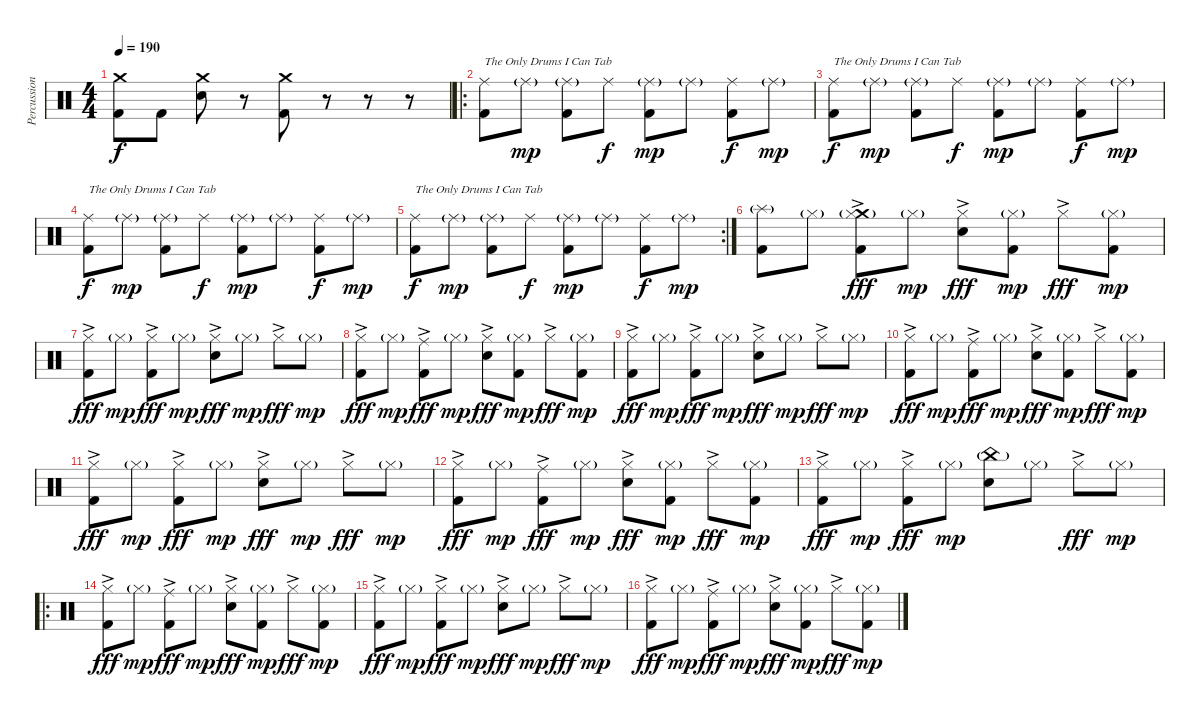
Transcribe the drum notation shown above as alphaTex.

\track ("Percussion" "Percussion") {instrument percussion}
\staff {score}
\articulation defaults
\ts (4 4)
\tempo 190
\clef neutral
\ks c
("Crash medium (hit)" "Kick (hit) 2").8{dy f} "Kick (hit) 2".8 ("Crash medium (hit)" "Electric Snare (hit)").8 r.8 ("Crash medium (hit)" "Kick (hit) 2").8 r.8 r.8 r.8 |
\ro
("Ride (middle)" "Kick (hit) 2").8{txt "The Only Drums I Can Tab"} "Ride (middle)"{g}.8{dy mp} ("Ride (middle)"{g} "Kick (hit) 2").8 "Ride (middle)".8{dy f} ("Ride (middle)"{g} "Kick (hit) 2").8{dy mp} "Ride (middle)"{g}.8 ("Ride (middle)" "Kick (hit) 2").8{dy f} "Ride (middle)"{g}.8{dy mp} |
("Ride (middle)" "Kick (hit) 2").8{txt "The Only Drums I Can Tab" dy f} "Ride (middle)"{g}.8{dy mp} ("Ride (middle)"{g} "Kick (hit) 2").8 "Ride (middle)".8{dy f} ("Ride (middle)"{g} "Kick (hit) 2").8{dy mp} "Ride (middle)"{g}.8 ("Ride (middle)" "Kick (hit) 2").8{dy f} "Ride (middle)"{g}.8{dy mp} |
("Ride (middle)" "Kick (hit) 2").8{txt "The Only Drums I Can Tab" dy f} "Ride (middle)"{g}.8{dy mp} ("Ride (middle)"{g} "Kick (hit) 2").8 "Ride (middle)".8{dy f} ("Ride (middle)"{g} "Kick (hit) 2").8{dy mp} "Ride (middle)"{g}.8 ("Ride (middle)" "Kick (hit) 2").8{dy f} "Ride (middle)"{g}.8{dy mp} |
\rc 2
("Ride (middle)" "Kick (hit) 2").8{txt "The Only Drums I Can Tab" dy f} "Ride (middle)"{g}.8{dy mp} ("Ride (middle)"{g} "Kick (hit) 2").8 "Ride (middle)".8{dy f} ("Ride (middle)"{g} "Kick (hit) 2").8{dy mp} "Ride (middle)"{g}.8 ("Ride (middle)" "Kick (hit) 2").8{dy f} "Ride (middle)"{g}.8{dy mp} |
("Splash (hit)"{g} "Kick (hit) 2").8 "Hi-Hat (closed)"{g}.8 ("Crash medium (hit)"{g} "Hi-Hat (closed)"{ac} "Kick (hit) 2").8{dy fff} "Hi-Hat (closed)"{g}.8{dy mp} ("Hi-Hat (closed)"{ac} "Electric Snare (hit)").8{dy fff} ("Hi-Hat (closed)"{g} "Kick (hit) 2").8{dy mp} "Hi-Hat (closed)"{ac}.8{dy fff} ("Hi-Hat (closed)"{g} "Kick (hit) 2").8{dy mp} |
("Hi-Hat (closed)"{ac} "Kick (hit) 2").8{dy fff} "Hi-Hat (closed)"{g}.8{dy mp} ("Hi-Hat (closed)"{ac} "Kick (hit) 2").8{dy fff} "Hi-Hat (closed)"{g}.8{dy mp} ("Hi-Hat (closed)"{ac} "Electric Snare (hit)").8{dy fff} "Hi-Hat (closed)"{g}.8{dy mp} "Hi-Hat (closed)"{ac}.8{dy fff} "Hi-Hat (closed)"{g}.8{dy mp} |
("Hi-Hat (closed)"{ac} "Kick (hit) 2").8{dy fff} "Hi-Hat (closed)"{g}.8{dy mp} ("Ride (middle)"{ac} "Kick (hit) 2").8{dy fff} "Hi-Hat (closed)"{g}.8{dy mp} ("Hi-Hat (closed)"{ac} "Electric Snare (hit)").8{dy fff} ("Hi-Hat (closed)"{g} "Kick (hit) 2").8{dy mp} "Hi-Hat (closed)"{ac}.8{dy fff} ("Hi-Hat (closed)"{g} "Kick (hit) 2").8{dy mp} |
("Hi-Hat (closed)"{ac} "Kick (hit) 2").8{dy fff} "Hi-Hat (closed)"{g}.8{dy mp} ("Hi-Hat (closed)"{ac} "Kick (hit) 2").8{dy fff} "Hi-Hat (closed)"{g}.8{dy mp} ("Hi-Hat (closed)"{ac} "Electric Snare (hit)").8{dy fff} "Hi-Hat (closed)"{g}.8{dy mp} "Hi-Hat (closed)"{ac}.8{dy fff} "Hi-Hat (closed)"{g}.8{dy mp} |
("Hi-Hat (closed)"{ac} "Kick (hit) 2").8{dy fff} "Hi-Hat (closed)"{g}.8{dy mp} ("Ride (middle)"{ac} "Kick (hit) 2").8{dy fff} "Hi-Hat (closed)"{g}.8{dy mp} ("Hi-Hat (closed)"{ac} "Electric Snare (hit)").8{dy fff} ("Hi-Hat (closed)"{g} "Kick (hit) 2").8{dy mp} "Hi-Hat (closed)"{ac}.8{dy fff} ("Hi-Hat (closed)"{g} "Kick (hit) 2").8{dy mp} |
("Hi-Hat (closed)"{ac} "Kick (hit) 2").8{dy fff} "Hi-Hat (closed)"{g}.8{dy mp} ("Hi-Hat (closed)"{ac} "Kick (hit) 2").8{dy fff} "Hi-Hat (closed)"{g}.8{dy mp} ("Hi-Hat (closed)"{ac} "Electric Snare (hit)").8{dy fff} "Hi-Hat (closed)"{g}.8{dy mp} "Hi-Hat (closed)"{ac}.8{dy fff} "Hi-Hat (closed)"{g}.8{dy mp} |
("Hi-Hat (closed)"{ac} "Kick (hit) 2").8{dy fff} "Hi-Hat (closed)"{g}.8{dy mp} ("Ride (middle)"{ac} "Kick (hit) 2").8{dy fff} "Hi-Hat (closed)"{g}.8{dy mp} ("Hi-Hat (closed)"{ac} "Electric Snare (hit)").8{dy fff} ("Hi-Hat (closed)"{g} "Kick (hit) 2").8{dy mp} "Hi-Hat (closed)"{ac}.8{dy fff} ("Hi-Hat (closed)"{g} "Kick (hit) 2").8{dy mp} |
("Hi-Hat (closed)"{ac} "Kick (hit) 2").8{dy fff} "Hi-Hat (closed)"{g}.8{dy mp} ("Hi-Hat (closed)"{ac} "Kick (hit) 2").8{dy fff} "Hi-Hat (closed)"{g}.8{dy mp} ("China (hit)"{g} "Electric Snare (hit)").8 "Hi-Hat (closed)"{g}.8 "Hi-Hat (closed)"{ac}.8{dy fff} "Hi-Hat (closed)"{g}.8{dy mp} |
\ro
("Hi-Hat (closed)"{ac} "Kick (hit) 2").8{dy fff} "Hi-Hat (closed)"{g}.8{dy mp} ("Ride (middle)"{ac} "Kick (hit) 2").8{dy fff} "Hi-Hat (closed)"{g}.8{dy mp} ("Hi-Hat (closed)"{ac} "Electric Snare (hit)").8{dy fff} ("Hi-Hat (closed)"{g} "Kick (hit) 2").8{dy mp} "Hi-Hat (closed)"{ac}.8{dy fff} ("Hi-Hat (closed)"{g} "Kick (hit) 2").8{dy mp} |
("Hi-Hat (closed)"{ac} "Kick (hit) 2").8{dy fff} "Hi-Hat (closed)"{g}.8{dy mp} ("Hi-Hat (closed)"{ac} "Kick (hit) 2").8{dy fff} "Hi-Hat (closed)"{g}.8{dy mp} ("Hi-Hat (closed)"{ac} "Electric Snare (hit)").8{dy fff} "Hi-Hat (closed)"{g}.8{dy mp} "Hi-Hat (closed)"{ac}.8{dy fff} "Hi-Hat (closed)"{g}.8{dy mp} |
("Hi-Hat (closed)"{ac} "Kick (hit) 2").8{dy fff} "Hi-Hat (closed)"{g}.8{dy mp} ("Ride (middle)"{ac} "Kick (hit) 2").8{dy fff} "Hi-Hat (closed)"{g}.8{dy mp} ("Hi-Hat (closed)"{ac} "Electric Snare (hit)").8{dy fff} ("Hi-Hat (closed)"{g} "Kick (hit) 2").8{dy mp} "Hi-Hat (closed)"{ac}.8{dy fff} ("Hi-Hat (closed)"{g} "Kick (hit) 2").8{dy mp}
